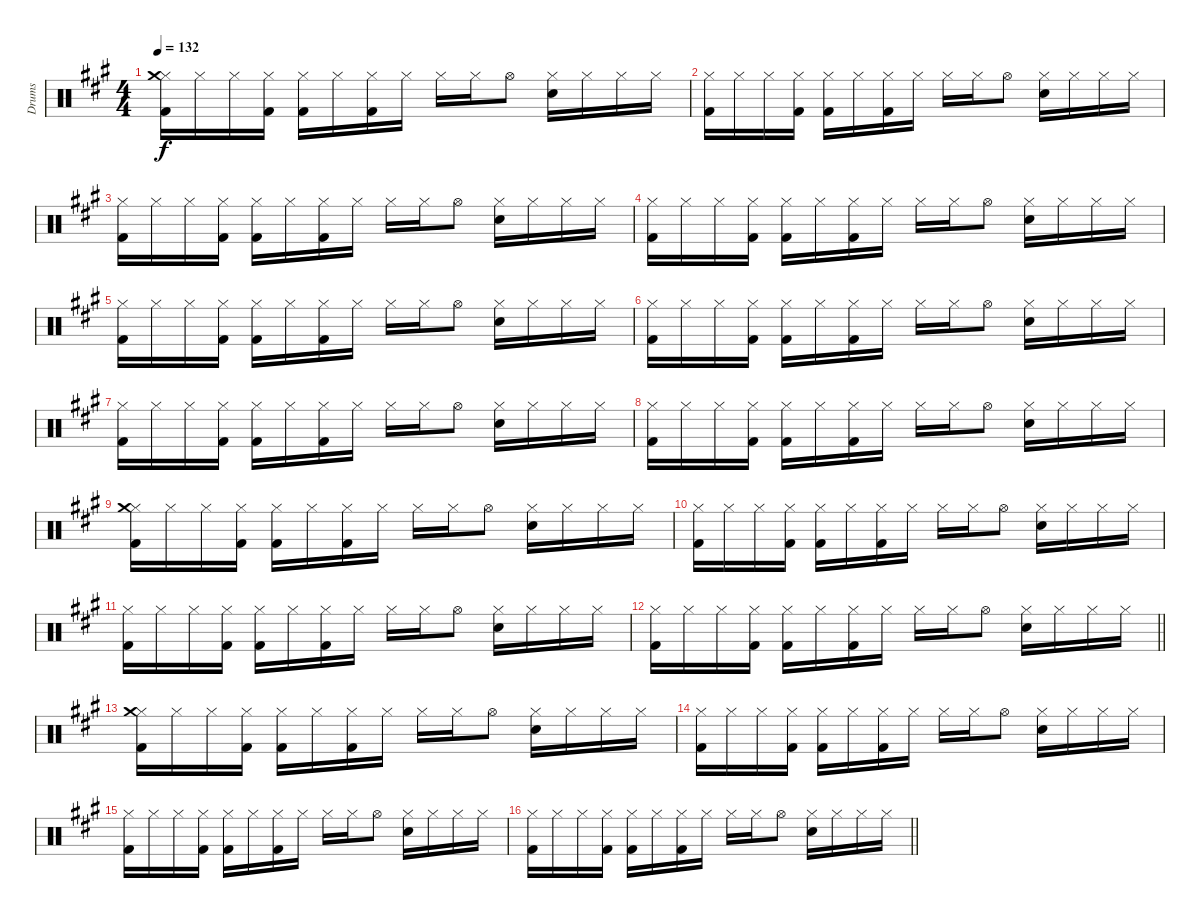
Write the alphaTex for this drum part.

\track ("Drums" "Drums") {instrument percussion}
\staff {score}
\articulation defaults
\ts (4 4)
\tempo 132
\clef neutral
\ks a
("Kick (hit) 2" "Hi-Hat (closed)" "Crash medium (hit)").16{dy f} "Hi-Hat (closed)".16 "Hi-Hat (closed)".16 ("Kick (hit) 2" "Hi-Hat (closed)").16 ("Kick (hit) 2" "Hi-Hat (closed)").16 "Hi-Hat (closed)".16 ("Kick (hit) 2" "Hi-Hat (closed)").16 "Hi-Hat (closed)".16 "Hi-Hat (closed)".16 "Hi-Hat (closed)".16 "Hi-Hat (open)".8 ("Snare (hit) 2" "Hi-Hat (closed)").16 "Hi-Hat (closed)".16 "Hi-Hat (closed)".16 "Hi-Hat (closed)".16 |
("Kick (hit) 2" "Hi-Hat (closed)").16 "Hi-Hat (closed)".16 "Hi-Hat (closed)".16 ("Kick (hit) 2" "Hi-Hat (closed)").16 ("Kick (hit) 2" "Hi-Hat (closed)").16 "Hi-Hat (closed)".16 ("Kick (hit) 2" "Hi-Hat (closed)").16 "Hi-Hat (closed)".16 "Hi-Hat (closed)".16 "Hi-Hat (closed)".16 "Hi-Hat (open)".8 ("Snare (hit) 2" "Hi-Hat (closed)").16 "Hi-Hat (closed)".16 "Hi-Hat (closed)".16 "Hi-Hat (closed)".16 |
("Kick (hit) 2" "Hi-Hat (closed)").16 "Hi-Hat (closed)".16 "Hi-Hat (closed)".16 ("Kick (hit) 2" "Hi-Hat (closed)").16 ("Kick (hit) 2" "Hi-Hat (closed)").16 "Hi-Hat (closed)".16 ("Kick (hit) 2" "Hi-Hat (closed)").16 "Hi-Hat (closed)".16 "Hi-Hat (closed)".16 "Hi-Hat (closed)".16 "Hi-Hat (open)".8 ("Snare (hit) 2" "Hi-Hat (closed)").16 "Hi-Hat (closed)".16 "Hi-Hat (closed)".16 "Hi-Hat (closed)".16 |
("Kick (hit) 2" "Hi-Hat (closed)").16 "Hi-Hat (closed)".16 "Hi-Hat (closed)".16 ("Kick (hit) 2" "Hi-Hat (closed)").16 ("Kick (hit) 2" "Hi-Hat (closed)").16 "Hi-Hat (closed)".16 ("Kick (hit) 2" "Hi-Hat (closed)").16 "Hi-Hat (closed)".16 "Hi-Hat (closed)".16 "Hi-Hat (closed)".16 "Hi-Hat (open)".8 ("Snare (hit) 2" "Hi-Hat (closed)").16 "Hi-Hat (closed)".16 "Hi-Hat (closed)".16 "Hi-Hat (closed)".16 |
("Kick (hit) 2" "Hi-Hat (closed)").16 "Hi-Hat (closed)".16 "Hi-Hat (closed)".16 ("Kick (hit) 2" "Hi-Hat (closed)").16 ("Kick (hit) 2" "Hi-Hat (closed)").16 "Hi-Hat (closed)".16 ("Kick (hit) 2" "Hi-Hat (closed)").16 "Hi-Hat (closed)".16 "Hi-Hat (closed)".16 "Hi-Hat (closed)".16 "Hi-Hat (open)".8 ("Snare (hit) 2" "Hi-Hat (closed)").16 "Hi-Hat (closed)".16 "Hi-Hat (closed)".16 "Hi-Hat (closed)".16 |
("Kick (hit) 2" "Hi-Hat (closed)").16 "Hi-Hat (closed)".16 "Hi-Hat (closed)".16 ("Kick (hit) 2" "Hi-Hat (closed)").16 ("Kick (hit) 2" "Hi-Hat (closed)").16 "Hi-Hat (closed)".16 ("Kick (hit) 2" "Hi-Hat (closed)").16 "Hi-Hat (closed)".16 "Hi-Hat (closed)".16 "Hi-Hat (closed)".16 "Hi-Hat (open)".8 ("Snare (hit) 2" "Hi-Hat (closed)").16 "Hi-Hat (closed)".16 "Hi-Hat (closed)".16 "Hi-Hat (closed)".16 |
("Kick (hit) 2" "Hi-Hat (closed)").16 "Hi-Hat (closed)".16 "Hi-Hat (closed)".16 ("Kick (hit) 2" "Hi-Hat (closed)").16 ("Kick (hit) 2" "Hi-Hat (closed)").16 "Hi-Hat (closed)".16 ("Kick (hit) 2" "Hi-Hat (closed)").16 "Hi-Hat (closed)".16 "Hi-Hat (closed)".16 "Hi-Hat (closed)".16 "Hi-Hat (open)".8 ("Snare (hit) 2" "Hi-Hat (closed)").16 "Hi-Hat (closed)".16 "Hi-Hat (closed)".16 "Hi-Hat (closed)".16 |
("Kick (hit) 2" "Hi-Hat (closed)").16 "Hi-Hat (closed)".16 "Hi-Hat (closed)".16 ("Kick (hit) 2" "Hi-Hat (closed)").16 ("Kick (hit) 2" "Hi-Hat (closed)").16 "Hi-Hat (closed)".16 ("Kick (hit) 2" "Hi-Hat (closed)").16 "Hi-Hat (closed)".16 "Hi-Hat (closed)".16 "Hi-Hat (closed)".16 "Hi-Hat (open)".8 ("Snare (hit) 2" "Hi-Hat (closed)").16 "Hi-Hat (closed)".16 "Hi-Hat (closed)".16 "Hi-Hat (closed)".16 |
("Kick (hit) 2" "Hi-Hat (closed)" "Crash medium (hit)").16 "Hi-Hat (closed)".16 "Hi-Hat (closed)".16 ("Kick (hit) 2" "Hi-Hat (closed)").16 ("Kick (hit) 2" "Hi-Hat (closed)").16 "Hi-Hat (closed)".16 ("Kick (hit) 2" "Hi-Hat (closed)").16 "Hi-Hat (closed)".16 "Hi-Hat (closed)".16 "Hi-Hat (closed)".16 "Hi-Hat (open)".8 ("Snare (hit) 2" "Hi-Hat (closed)").16 "Hi-Hat (closed)".16 "Hi-Hat (closed)".16 "Hi-Hat (closed)".16 |
("Kick (hit) 2" "Hi-Hat (closed)").16 "Hi-Hat (closed)".16 "Hi-Hat (closed)".16 ("Kick (hit) 2" "Hi-Hat (closed)").16 ("Kick (hit) 2" "Hi-Hat (closed)").16 "Hi-Hat (closed)".16 ("Kick (hit) 2" "Hi-Hat (closed)").16 "Hi-Hat (closed)".16 "Hi-Hat (closed)".16 "Hi-Hat (closed)".16 "Hi-Hat (open)".8 ("Snare (hit) 2" "Hi-Hat (closed)").16 "Hi-Hat (closed)".16 "Hi-Hat (closed)".16 "Hi-Hat (closed)".16 |
("Kick (hit) 2" "Hi-Hat (closed)").16 "Hi-Hat (closed)".16 "Hi-Hat (closed)".16 ("Kick (hit) 2" "Hi-Hat (closed)").16 ("Kick (hit) 2" "Hi-Hat (closed)").16 "Hi-Hat (closed)".16 ("Kick (hit) 2" "Hi-Hat (closed)").16 "Hi-Hat (closed)".16 "Hi-Hat (closed)".16 "Hi-Hat (closed)".16 "Hi-Hat (open)".8 ("Snare (hit) 2" "Hi-Hat (closed)").16 "Hi-Hat (closed)".16 "Hi-Hat (closed)".16 "Hi-Hat (closed)".16 |
\barLineRight lightlight
("Kick (hit) 2" "Hi-Hat (closed)").16 "Hi-Hat (closed)".16 "Hi-Hat (closed)".16 ("Kick (hit) 2" "Hi-Hat (closed)").16 ("Kick (hit) 2" "Hi-Hat (closed)").16 "Hi-Hat (closed)".16 ("Kick (hit) 2" "Hi-Hat (closed)").16 "Hi-Hat (closed)".16 "Hi-Hat (closed)".16 "Hi-Hat (closed)".16 "Hi-Hat (open)".8 ("Snare (hit) 2" "Hi-Hat (closed)").16 "Hi-Hat (closed)".16 "Hi-Hat (closed)".16 "Hi-Hat (closed)".16 |
("Kick (hit) 2" "Hi-Hat (closed)" "Crash medium (hit)").16 "Hi-Hat (closed)".16 "Hi-Hat (closed)".16 ("Kick (hit) 2" "Hi-Hat (closed)").16 ("Kick (hit) 2" "Hi-Hat (closed)").16 "Hi-Hat (closed)".16 ("Kick (hit) 2" "Hi-Hat (closed)").16 "Hi-Hat (closed)".16 "Hi-Hat (closed)".16 "Hi-Hat (closed)".16 "Hi-Hat (open)".8 ("Snare (hit) 2" "Hi-Hat (closed)").16 "Hi-Hat (closed)".16 "Hi-Hat (closed)".16 "Hi-Hat (closed)".16 |
("Kick (hit) 2" "Hi-Hat (closed)").16 "Hi-Hat (closed)".16 "Hi-Hat (closed)".16 ("Kick (hit) 2" "Hi-Hat (closed)").16 ("Kick (hit) 2" "Hi-Hat (closed)").16 "Hi-Hat (closed)".16 ("Kick (hit) 2" "Hi-Hat (closed)").16 "Hi-Hat (closed)".16 "Hi-Hat (closed)".16 "Hi-Hat (closed)".16 "Hi-Hat (open)".8 ("Snare (hit) 2" "Hi-Hat (closed)").16 "Hi-Hat (closed)".16 "Hi-Hat (closed)".16 "Hi-Hat (closed)".16 |
("Kick (hit) 2" "Hi-Hat (closed)").16 "Hi-Hat (closed)".16 "Hi-Hat (closed)".16 ("Kick (hit) 2" "Hi-Hat (closed)").16 ("Kick (hit) 2" "Hi-Hat (closed)").16 "Hi-Hat (closed)".16 ("Kick (hit) 2" "Hi-Hat (closed)").16 "Hi-Hat (closed)".16 "Hi-Hat (closed)".16 "Hi-Hat (closed)".16 "Hi-Hat (open)".8 ("Snare (hit) 2" "Hi-Hat (closed)").16 "Hi-Hat (closed)".16 "Hi-Hat (closed)".16 "Hi-Hat (closed)".16 |
\barLineRight lightlight
("Kick (hit) 2" "Hi-Hat (closed)").16 "Hi-Hat (closed)".16 "Hi-Hat (closed)".16 ("Kick (hit) 2" "Hi-Hat (closed)").16 ("Kick (hit) 2" "Hi-Hat (closed)").16 "Hi-Hat (closed)".16 ("Kick (hit) 2" "Hi-Hat (closed)").16 "Hi-Hat (closed)".16 "Hi-Hat (closed)".16 "Hi-Hat (closed)".16 "Hi-Hat (open)".8 ("Snare (hit) 2" "Hi-Hat (closed)").16 "Hi-Hat (closed)".16 "Hi-Hat (closed)".16 "Hi-Hat (closed)".16
